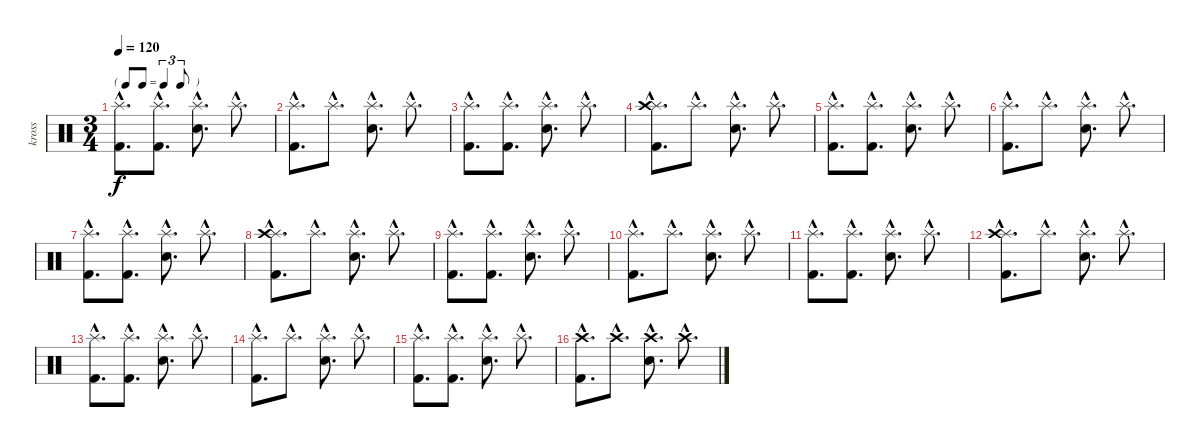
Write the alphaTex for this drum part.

\track ("kross" "kross") {instrument percussion}
\staff {score}
\articulation defaults
\ts (3 4)
\tf triplet8th
\tempo 120
\clef neutral
\ks c
("Splash (hit)"{hac} "Kick (hit) 2"{hac}).8{d dy f} ("Splash (hit)"{hac} "Kick (hit) 2"{hac}).8{d} ("Electric Snare (hit)"{hac} "Splash (hit)"{hac}).8{d} "Splash (hit)"{hac}.8{d} |
("Splash (hit)"{hac} "Kick (hit) 2"{hac}).8{d} "Splash (hit)"{hac}.8{d} ("Electric Snare (hit)"{hac} "Splash (hit)"{hac}).8{d} "Splash (hit)"{hac}.8{d} |
("Splash (hit)"{hac} "Kick (hit) 2"{hac}).8{d} ("Splash (hit)"{hac} "Kick (hit) 2"{hac}).8{d} ("Electric Snare (hit)"{hac} "Splash (hit)"{hac}).8{d} "Splash (hit)"{hac}.8{d} |
("Splash (hit)"{hac} "Crash high (hit)"{hac} "Kick (hit) 2"{hac}).8{d} "Splash (hit)"{hac}.8{d} ("Electric Snare (hit)"{hac} "Splash (hit)"{hac}).8{d} "Splash (hit)"{hac}.8{d} |
("Splash (hit)"{hac} "Kick (hit) 2"{hac}).8{d} ("Splash (hit)"{hac} "Kick (hit) 2"{hac}).8{d} ("Electric Snare (hit)"{hac} "Splash (hit)"{hac}).8{d} "Splash (hit)"{hac}.8{d} |
("Splash (hit)"{hac} "Kick (hit) 2"{hac}).8{d} "Splash (hit)"{hac}.8{d} ("Electric Snare (hit)"{hac} "Splash (hit)"{hac}).8{d} "Splash (hit)"{hac}.8{d} |
("Splash (hit)"{hac} "Kick (hit) 2"{hac}).8{d} ("Splash (hit)"{hac} "Kick (hit) 2"{hac}).8{d} ("Electric Snare (hit)"{hac} "Splash (hit)"{hac}).8{d} "Splash (hit)"{hac}.8{d} |
("Splash (hit)"{hac} "Crash high (hit)"{hac} "Kick (hit) 2"{hac}).8{d} "Splash (hit)"{hac}.8{d} ("Electric Snare (hit)"{hac} "Splash (hit)"{hac}).8{d} "Splash (hit)"{hac}.8{d} |
("Splash (hit)"{hac} "Kick (hit) 2"{hac}).8{d} ("Splash (hit)"{hac} "Kick (hit) 2"{hac}).8{d} ("Electric Snare (hit)"{hac} "Splash (hit)"{hac}).8{d} "Splash (hit)"{hac}.8{d} |
("Splash (hit)"{hac} "Kick (hit) 2"{hac}).8{d} "Splash (hit)"{hac}.8{d} ("Electric Snare (hit)"{hac} "Splash (hit)"{hac}).8{d} "Splash (hit)"{hac}.8{d} |
("Splash (hit)"{hac} "Kick (hit) 2"{hac}).8{d} ("Splash (hit)"{hac} "Kick (hit) 2"{hac}).8{d} ("Electric Snare (hit)"{hac} "Splash (hit)"{hac}).8{d} "Splash (hit)"{hac}.8{d} |
("Splash (hit)"{hac} "Crash high (hit)"{hac} "Kick (hit) 2"{hac}).8{d} "Splash (hit)"{hac}.8{d} ("Electric Snare (hit)"{hac} "Splash (hit)"{hac}).8{d} "Splash (hit)"{hac}.8{d} |
("Splash (hit)"{hac} "Kick (hit) 2"{hac}).8{d} ("Splash (hit)"{hac} "Kick (hit) 2"{hac}).8{d} ("Electric Snare (hit)"{hac} "Splash (hit)"{hac}).8{d} "Splash (hit)"{hac}.8{d} |
("Splash (hit)"{hac} "Kick (hit) 2"{hac}).8{d} "Splash (hit)"{hac}.8{d} ("Electric Snare (hit)"{hac} "Splash (hit)"{hac}).8{d} "Splash (hit)"{hac}.8{d} |
("Splash (hit)"{hac} "Kick (hit) 2"{hac}).8{d} ("Splash (hit)"{hac} "Kick (hit) 2"{hac}).8{d} ("Electric Snare (hit)"{hac} "Splash (hit)"{hac}).8{d} "Splash (hit)"{hac}.8{d} |
("Crash high (hit)"{hac} "Kick (hit) 2"{hac}).8{d} "Crash high (hit)"{hac}.8{d} ("Electric Snare (hit)"{hac} "Crash high (hit)"{hac}).8{d} "Crash high (hit)"{hac}.8{d}
